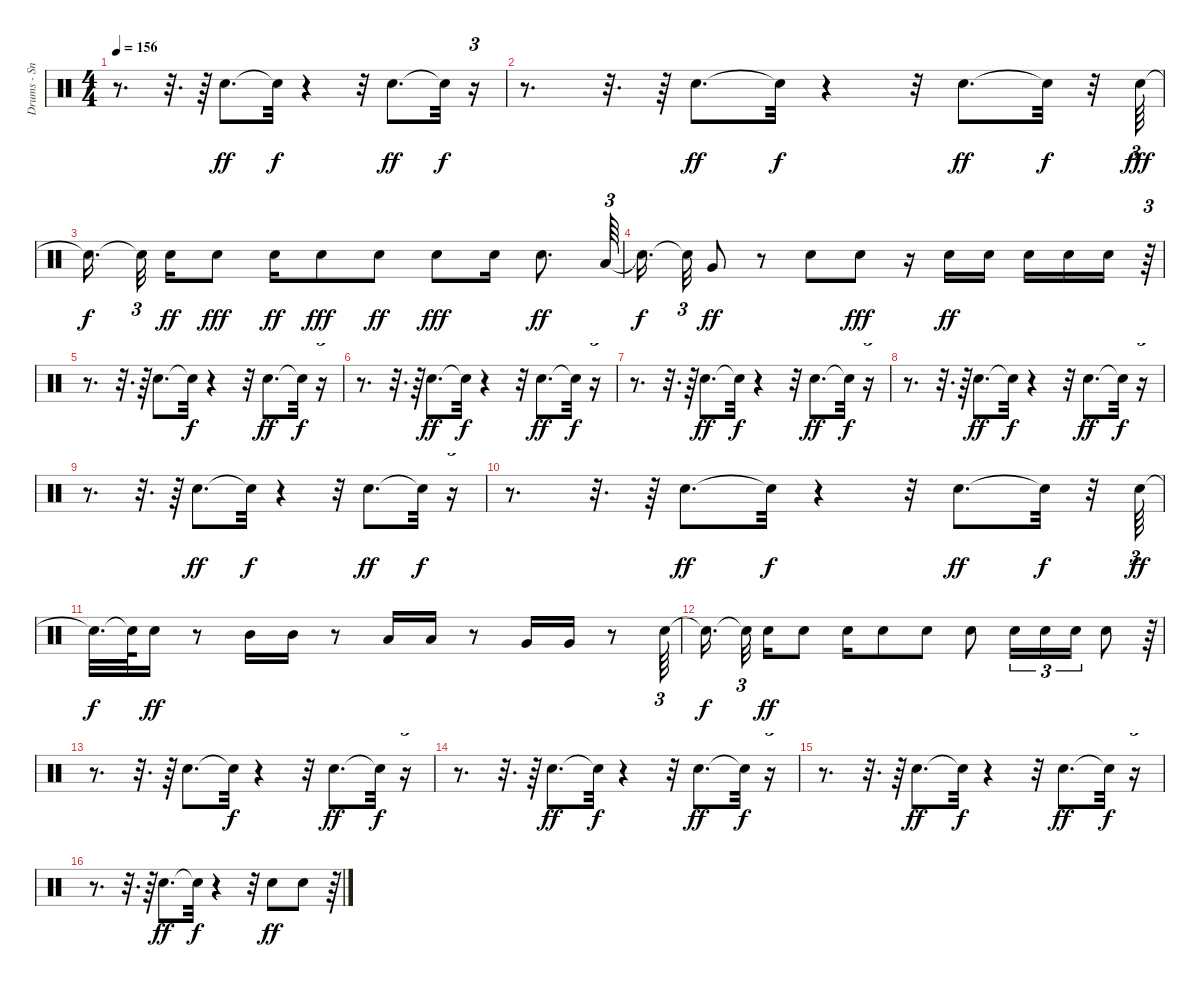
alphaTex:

\track ("Drums - Snare/Toms" "Drums - Sn") {instrument percussion}
\staff {score}
\articulation defaults
\ts (4 4)
\tempo 156
\clef neutral
\ks c
r.8{d dy f} r.32{d} r.64 "Electric Snare (hit)".8{d dy ff} "Snare (hit)"{t}.32{dy f} r.4 r.32 "Electric Snare (hit)".8{d dy ff} "Snare (hit)"{t}.32{dy f} r.16{tu (3 2)} |
r.8{d} r.32{d} r.64 "Electric Snare (hit)".8{d dy ff} "Snare (hit)"{t}.32{dy f} r.4 r.32 "Electric Snare (hit)".8{d dy ff} "Snare (hit)"{t}.32{dy f} r.32 "Electric Snare (hit)".64{tu (3 2) dy fff} |
"Snare (hit)"{t}.16{d dy f beam splitsecondary} "Snare (hit)"{t}.32{tu (3 2) beam splitsecondary} "Electric Snare (hit)".16{dy ff} "Electric Snare (hit)".8{dy fff} "Electric Snare (hit)".16{dy ff} "Electric Snare (hit)".8{dy fff} "Electric Snare (hit)".8{dy ff} "Electric Snare (hit)".8{dy fff} "Electric Snare (hit)".16 "Electric Snare (hit)".8{d dy ff} "Low Tom (hit)".64{tu (3 2)} |
"Snare (hit)"{t}.16{d dy f beam splitsecondary} "Snare (hit)"{t}.32{tu (3 2)} "Very Low Tom (hit)".8{dy ff} r.8 "Electric Snare (hit)".8 "Electric Snare (hit)".8{dy fff} r.16 "Electric Snare (hit)".16{dy ff} "Electric Snare (hit)".16 "Electric Snare (hit)".16 "Electric Snare (hit)".16 "Electric Snare (hit)".16 r.64{tu (3 2)} |
r.8{d} r.32{d} r.64 "Electric Snare (hit)".8{d} "Snare (hit)"{t}.32{dy f} r.4 r.32 "Electric Snare (hit)".8{d dy ff} "Snare (hit)"{t}.32{dy f} r.16{tu (3 2)} |
r.8{d} r.32{d} r.64 "Electric Snare (hit)".8{d dy ff} "Snare (hit)"{t}.32{dy f} r.4 r.32 "Electric Snare (hit)".8{d dy ff} "Snare (hit)"{t}.32{dy f} r.16{tu (3 2)} |
r.8{d} r.32{d} r.64 "Electric Snare (hit)".8{d dy ff} "Snare (hit)"{t}.32{dy f} r.4 r.32 "Electric Snare (hit)".8{d dy ff} "Snare (hit)"{t}.32{dy f} r.16{tu (3 2)} |
r.8{d} r.32{d} r.64 "Electric Snare (hit)".8{d dy ff} "Snare (hit)"{t}.32{dy f} r.4 r.32 "Electric Snare (hit)".8{d dy ff} "Snare (hit)"{t}.32{dy f} r.16{tu (3 2)} |
r.8{d} r.32{d} r.64 "Electric Snare (hit)".8{d dy ff} "Snare (hit)"{t}.32{dy f} r.4 r.32 "Electric Snare (hit)".8{d dy ff} "Snare (hit)"{t}.32{dy f} r.16{tu (3 2)} |
r.8{d} r.32{d} r.64 "Electric Snare (hit)".8{d dy ff} "Snare (hit)"{t}.32{dy f} r.4 r.32 "Electric Snare (hit)".8{d dy ff} "Snare (hit)"{t}.32{dy f} r.32 "Electric Snare (hit)".64{tu (3 2) dy ff} |
"Snare (hit)"{t}.32{d dy f} "Snare (hit)"{t}.64 "Electric Snare (hit)".16{dy ff} r.8 "Mid Tom (hit)".16 "Mid Tom (hit)".16 r.8 "Low Tom (hit)".16 "Low Tom (hit)".16 r.8 "Very Low Tom (hit)".16 "Very Low Tom (hit)".16 r.8 "Electric Snare (hit)".64{tu (3 2)} |
"Snare (hit)"{t}.16{d dy f beam splitsecondary} "Snare (hit)"{t}.32{tu (3 2) beam splitsecondary} "Electric Snare (hit)".16{dy ff} "Electric Snare (hit)".8 "Electric Snare (hit)".16 "Electric Snare (hit)".8 "Electric Snare (hit)".8 "Electric Snare (hit)".8 "Electric Snare (hit)".16{tu (3 2)} "Electric Snare (hit)".16{tu (3 2)} "Electric Snare (hit)".16{tu (3 2)} "Electric Snare (hit)".8 r.64{tu (3 2)} |
r.8{d} r.32{d} r.64 "Electric Snare (hit)".8{d} "Snare (hit)"{t}.32{dy f} r.4 r.32 "Electric Snare (hit)".8{d dy ff} "Snare (hit)"{t}.32{dy f} r.16{tu (3 2)} |
r.8{d} r.32{d} r.64 "Electric Snare (hit)".8{d dy ff} "Snare (hit)"{t}.32{dy f} r.4 r.32 "Electric Snare (hit)".8{d dy ff} "Snare (hit)"{t}.32{dy f} r.16{tu (3 2)} |
r.8{d} r.32{d} r.64 "Electric Snare (hit)".8{d dy ff} "Snare (hit)"{t}.32{dy f} r.4 r.32 "Electric Snare (hit)".8{d dy ff} "Snare (hit)"{t}.32{dy f} r.16{tu (3 2)} |
r.8{d} r.32{d} r.64 "Electric Snare (hit)".8{d dy ff} "Snare (hit)"{t}.32{dy f} r.4 r.32 "Electric Snare (hit)".8{dy ff} "Electric Snare (hit)".8 r.64{tu (3 2)}
